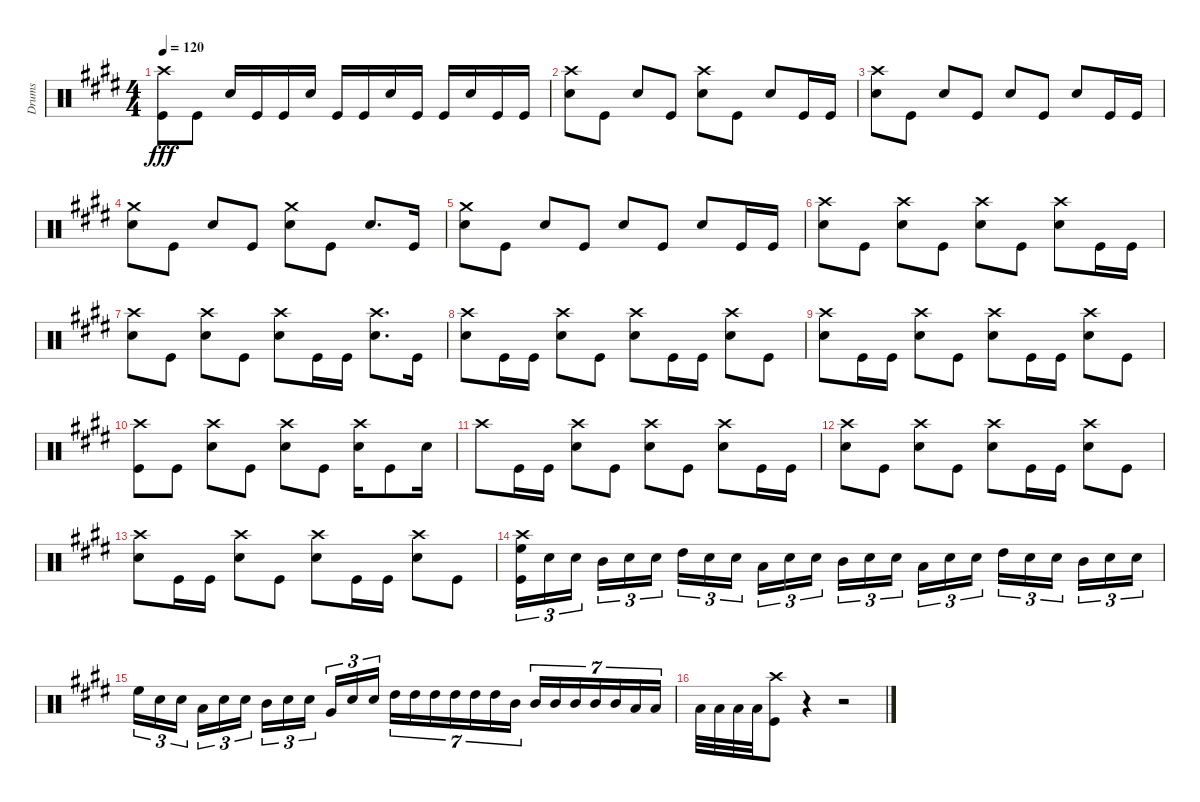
\track ("Drums" "Drums") {instrument percussion}
\staff {score}
\articulation defaults
\ts (4 4)
\tempo 120
\clef neutral
\ks e
("Crash high (hit)" "Kick (hit)").8{dy fff} "Kick (hit)".8 "Snare (hit) 2".16 "Kick (hit)".16 "Kick (hit)".16 "Snare (hit) 2".16 "Kick (hit)".16 "Kick (hit)".16 "Snare (hit) 2".16 "Kick (hit)".16 "Kick (hit)".16 "Snare (hit) 2".16 "Kick (hit)".16 "Kick (hit)".16 |
("Crash high (hit)" "Snare (hit) 2").8 "Kick (hit)".8 "Snare (hit) 2".8 "Kick (hit)".8 ("Crash high (hit)" "Snare (hit) 2").8 "Kick (hit)".8 "Snare (hit) 2".8 "Kick (hit)".16 "Kick (hit)".16 |
("Crash high (hit)" "Snare (hit) 2").8 "Kick (hit)".8 "Snare (hit) 2".8 "Kick (hit)".8 "Snare (hit) 2".8 "Kick (hit)".8 "Snare (hit) 2".8 "Kick (hit)".16 "Kick (hit)".16 |
("Crash medium (hit)" "Snare (hit) 2").8 "Kick (hit)".8 "Snare (hit) 2".8 "Kick (hit)".8 ("Crash medium (hit)" "Snare (hit) 2").8 "Kick (hit)".8 "Snare (hit) 2".8{d} "Kick (hit)".16 |
("Crash medium (hit)" "Snare (hit) 2").8 "Kick (hit)".8 "Snare (hit) 2".8 "Kick (hit)".8 "Snare (hit) 2".8 "Kick (hit)".8 "Snare (hit) 2".8 "Kick (hit)".16 "Kick (hit)".16 |
("Crash high (hit)" "Snare (hit) 2").8 "Kick (hit)".8 ("Crash high (hit)" "Snare (hit) 2").8 "Kick (hit)".8 ("Crash high (hit)" "Snare (hit) 2").8 "Kick (hit)".8 ("Crash high (hit)" "Snare (hit) 2").8 "Kick (hit)".16 "Kick (hit)".16 |
("Crash high (hit)" "Snare (hit) 2").8 "Kick (hit)".8 ("Crash high (hit)" "Snare (hit) 2").8 "Kick (hit)".8 ("Crash high (hit)" "Snare (hit) 2").8 "Kick (hit)".16 "Kick (hit)".16 ("Crash high (hit)" "Snare (hit) 2").8{d} "Kick (hit)".16 |
("Crash high (hit)" "Snare (hit) 2").8 "Kick (hit)".16 "Kick (hit)".16 ("Crash high (hit)" "Snare (hit) 2").8 "Kick (hit)".8 ("Crash high (hit)" "Snare (hit) 2").8 "Kick (hit)".16 "Kick (hit)".16 ("Crash high (hit)" "Snare (hit) 2").8 "Kick (hit)".8 |
("Crash high (hit)" "Snare (hit) 2").8 "Kick (hit)".16 "Kick (hit)".16 ("Crash high (hit)" "Snare (hit) 2").8 "Kick (hit)".8 ("Crash high (hit)" "Snare (hit) 2").8 "Kick (hit)".16 "Kick (hit)".16 ("Crash high (hit)" "Snare (hit) 2").8 "Kick (hit)".8 |
("Crash high (hit)" "Kick (hit)").8 "Kick (hit)".8 ("Crash high (hit)" "Snare (hit) 2").8 "Kick (hit)".8 ("Crash high (hit)" "Snare (hit) 2").8 "Kick (hit)".8 ("Crash high (hit)" "Snare (hit) 2").16 "Kick (hit)".8 "Snare (hit) 2".16 |
"Crash high (hit)".8 "Kick (hit)".16 "Kick (hit)".16 ("Crash high (hit)" "Snare (hit) 2").8 "Kick (hit)".8 ("Crash high (hit)" "Snare (hit) 2").8 "Kick (hit)".8 ("Crash high (hit)" "Snare (hit) 2").8 "Kick (hit)".16 "Kick (hit)".16 |
("Crash high (hit)" "Snare (hit) 2").8 "Kick (hit)".8 ("Crash high (hit)" "Snare (hit) 2").8 "Kick (hit)".8 ("Crash high (hit)" "Snare (hit) 2").8 "Kick (hit)".16 "Kick (hit)".16 ("Crash high (hit)" "Snare (hit) 2").8 "Kick (hit)".8 |
("Crash high (hit)" "Snare (hit) 2").8 "Kick (hit)".16 "Kick (hit)".16 ("Crash high (hit)" "Snare (hit) 2").8 "Kick (hit)".8 ("Crash high (hit)" "Snare (hit) 2").8 "Kick (hit)".16 "Kick (hit)".16 ("Crash high (hit)" "Snare (hit) 2").8 "Kick (hit)".8 |
("Crash high (hit)" "High Floor Tom (hit)" "Kick (hit)").16{tu (3 2)} "Snare (hit) 2".16{tu (3 2)} "Snare (hit) 2".16{tu (3 2)} "Mid Tom (hit)".16{tu (3 2)} "Snare (hit) 2".16{tu (3 2)} "Snare (hit) 2".16{tu (3 2)} "High Tom (hit)".16{tu (3 2)} "Snare (hit) 2".16{tu (3 2)} "Snare (hit) 2".16{tu (3 2)} "Low Tom (hit)".16{tu (3 2)} "Snare (hit) 2".16{tu (3 2)} "Snare (hit) 2".16{tu (3 2)} "Mid Tom (hit)".16{tu (3 2)} "Snare (hit) 2".16{tu (3 2)} "Snare (hit) 2".16{tu (3 2)} "Low Tom (hit)".16{tu (3 2)} "Snare (hit) 2".16{tu (3 2)} "Snare (hit) 2".16{tu (3 2)} "High Tom (hit)".16{tu (3 2)} "Snare (hit) 2".16{tu (3 2)} "Snare (hit) 2".16{tu (3 2)} "Mid Tom (hit)".16{tu (3 2)} "Snare (hit) 2".16{tu (3 2)} "Snare (hit) 2".16{tu (3 2)} |
"High Floor Tom (hit)".16{tu (3 2)} "Snare (hit) 2".16{tu (3 2)} "Snare (hit) 2".16{tu (3 2)} "Low Tom (hit)".16{tu (3 2)} "Snare (hit) 2".16{tu (3 2)} "Snare (hit) 2".16{tu (3 2)} "Mid Tom (hit)".16{tu (3 2)} "Snare (hit) 2".16{tu (3 2)} "Snare (hit) 2".16{tu (3 2)} "Very Low Tom (hit)".16{tu (3 2)} "Snare (hit) 2".16{tu (3 2)} "Snare (hit) 2".16{tu (3 2)} "High Tom (hit)".16{tu (7 4)} "High Tom (hit)".16{tu (7 4)} "High Tom (hit)".16{tu (7 4)} "High Tom (hit)".16{tu (7 4)} "High Tom (hit)".16{tu (7 4)} "High Tom (hit)".16{tu (7 4)} "Mid Tom (hit)".16{tu (7 4)} "Mid Tom (hit)".16{tu (7 4)} "Mid Tom (hit)".16{tu (7 4)} "Mid Tom (hit)".16{tu (7 4)} "Mid Tom (hit)".16{tu (7 4)} "Mid Tom (hit)".16{tu (7 4)} "Low Tom (hit)".16{tu (7 4)} "Low Tom (hit)".16{tu (7 4)} |
"Low Tom (hit)".32 "Low Tom (hit)".32 "Low Tom (hit)".32 "Low Tom (hit)".32 ("Crash high (hit)" "Kick (hit)").8 r.4 r.2
